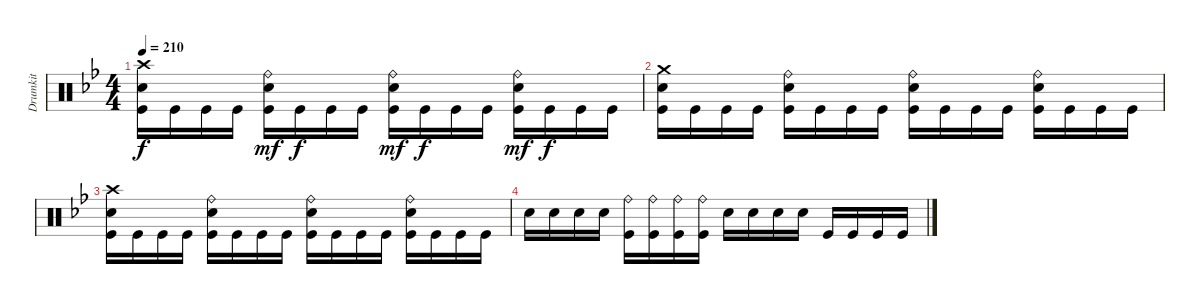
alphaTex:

\track ("Drumkit" "Drumkit") {instrument percussion}
\staff {score}
\articulation defaults
\ts (4 4)
\tempo 210
\clef neutral
\ks gminor
("Crash high (hit)" "Snare (hit) 2" "Kick (hit)").16{dy f} "Kick (hit)".16 "Kick (hit)".16 "Kick (hit)".16 ("Ride (bell)" "Snare (hit) 2" "Kick (hit)").16{dy mf} "Kick (hit)".16{dy f} "Kick (hit)".16 "Kick (hit)".16 ("Ride (bell)" "Snare (hit) 2" "Kick (hit)").16{dy mf} "Kick (hit)".16{dy f} "Kick (hit)".16 "Kick (hit)".16 ("Ride (bell)" "Snare (hit) 2" "Kick (hit)").16{dy mf} "Kick (hit)".16{dy f} "Kick (hit)".16 "Kick (hit)".16 |
("Crash medium (hit)" "Snare (hit) 2" "Kick (hit)").16 "Kick (hit)".16 "Kick (hit)".16 "Kick (hit)".16 ("Ride (bell)" "Snare (hit) 2" "Kick (hit)").16 "Kick (hit)".16 "Kick (hit)".16 "Kick (hit)".16 ("Ride (bell)" "Snare (hit) 2" "Kick (hit)").16 "Kick (hit)".16 "Kick (hit)".16 "Kick (hit)".16 ("Ride (bell)" "Snare (hit) 2" "Kick (hit)").16 "Kick (hit)".16 "Kick (hit)".16 "Kick (hit)".16 |
("Crash high (hit)" "Snare (hit) 2" "Kick (hit)").16 "Kick (hit)".16 "Kick (hit)".16 "Kick (hit)".16 ("Ride (bell)" "Snare (hit) 2" "Kick (hit)").16 "Kick (hit)".16 "Kick (hit)".16 "Kick (hit)".16 ("Ride (bell)" "Snare (hit) 2" "Kick (hit)").16 "Kick (hit)".16 "Kick (hit)".16 "Kick (hit)".16 ("Ride (bell)" "Snare (hit) 2" "Kick (hit)").16 "Kick (hit)".16 "Kick (hit)".16 "Kick (hit)".16 |
"Snare (hit) 2".16 "Snare (hit) 2".16 "Snare (hit) 2".16 "Snare (hit) 2".16 ("Ride (bell)" "Kick (hit)").16 ("Ride (bell)" "Kick (hit)").16 ("Ride (bell)" "Kick (hit)").16 ("Ride (bell)" "Kick (hit)").16 "Snare (hit) 2".16 "Snare (hit) 2".16 "Snare (hit) 2".16 "Snare (hit) 2".16 "Kick (hit)".16 "Kick (hit)".16 "Kick (hit)".16 "Kick (hit)".16
